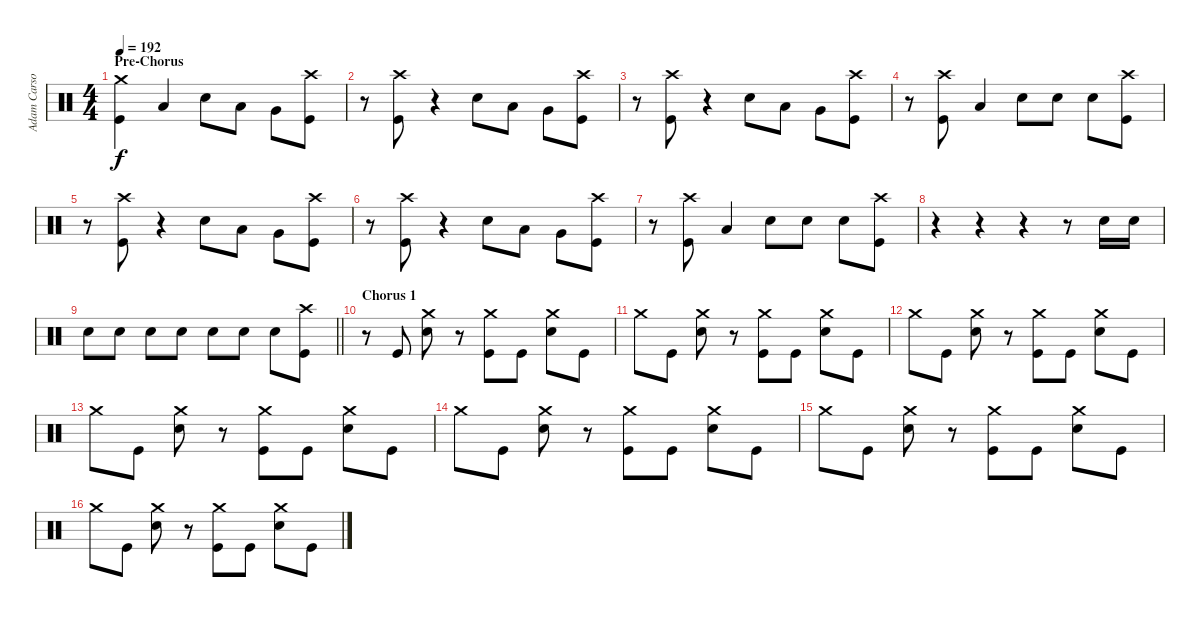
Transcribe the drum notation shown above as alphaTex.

\track ("Adam Carson" "Adam Carso") {instrument percussion}
\staff {score}
\articulation defaults
\ts (4 4)
\section ("" "Pre-Chorus")
\tempo 192
\clef neutral
\ks c
("Crash medium (hit)" "Kick (hit)").4{dy f} "Low Tom (hit)".4 "Electric Snare (hit)".8 "Low Tom (hit)".8 "Very Low Tom (hit)".8 ("Crash high (hit)" "Kick (hit)").8 |
r.8 ("Crash high (hit)" "Kick (hit)").8 r.4 "Electric Snare (hit)".8 "Low Tom (hit)".8 "Very Low Tom (hit)".8 ("Crash high (hit)" "Kick (hit)").8 |
r.8 ("Crash high (hit)" "Kick (hit)").8 r.4 "Electric Snare (hit)".8 "Low Tom (hit)".8 "Very Low Tom (hit)".8 ("Crash high (hit)" "Kick (hit)").8 |
r.8 ("Crash high (hit)" "Kick (hit)").8 "Low Tom (hit)".4 "Electric Snare (hit)".8 "Electric Snare (hit)".8 "Electric Snare (hit)".8 ("Crash high (hit)" "Kick (hit)").8 |
r.8 ("Crash high (hit)" "Kick (hit)").8 r.4 "Electric Snare (hit)".8 "Low Tom (hit)".8 "Very Low Tom (hit)".8 ("Crash high (hit)" "Kick (hit)").8 |
r.8 ("Crash high (hit)" "Kick (hit)").8 r.4 "Electric Snare (hit)".8 "Low Tom (hit)".8 "Very Low Tom (hit)".8 ("Crash high (hit)" "Kick (hit)").8 |
r.8 ("Crash high (hit)" "Kick (hit)").8 "Low Tom (hit)".4 "Electric Snare (hit)".8 "Electric Snare (hit)".8 "Electric Snare (hit)".8 ("Crash high (hit)" "Kick (hit)").8 |
r.4 r.4 r.4 r.8 "Electric Snare (hit)".16 "Electric Snare (hit)".16 |
\barLineRight lightlight "Electric Snare (hit)".8 "Electric Snare (hit)".8 "Electric Snare (hit)".8 "Electric Snare (hit)".8 "Electric Snare (hit)".8 "Electric Snare (hit)".8 "Electric Snare (hit)".8
("Crash high (hit)" "Kick (hit)").8 |
\section ("" "Chorus 1")
r.8 "Kick (hit)".8 ("Crash medium (hit)" "Electric Snare (hit)").8 r.8 ("Crash medium (hit)" "Kick (hit)").8 "Kick (hit)".8 ("Crash medium (hit)" "Electric Snare (hit)").8 "Kick (hit)".8 |
"Crash medium (hit)".8 "Kick (hit)".8 ("Crash medium (hit)" "Electric Snare (hit)").8 r.8 ("Crash medium (hit)" "Kick (hit)").8 "Kick (hit)".8 ("Crash medium (hit)" "Electric Snare (hit)").8 "Kick (hit)".8 |
"Crash medium (hit)".8 "Kick (hit)".8 ("Crash medium (hit)" "Electric Snare (hit)").8 r.8 ("Crash medium (hit)" "Kick (hit)").8 "Kick (hit)".8 ("Crash medium (hit)" "Electric Snare (hit)").8 "Kick (hit)".8 |
"Crash medium (hit)".8 "Kick (hit)".8 ("Crash medium (hit)" "Electric Snare (hit)").8 r.8 ("Crash medium (hit)" "Kick (hit)").8 "Kick (hit)".8 ("Crash medium (hit)" "Electric Snare (hit)").8 "Kick (hit)".8 |
"Crash medium (hit)".8 "Kick (hit)".8 ("Crash medium (hit)" "Electric Snare (hit)").8 r.8 ("Crash medium (hit)" "Kick (hit)").8 "Kick (hit)".8 ("Crash medium (hit)" "Electric Snare (hit)").8 "Kick (hit)".8 |
"Crash medium (hit)".8 "Kick (hit)".8 ("Crash medium (hit)" "Electric Snare (hit)").8 r.8 ("Crash medium (hit)" "Kick (hit)").8 "Kick (hit)".8 ("Crash medium (hit)" "Electric Snare (hit)").8 "Kick (hit)".8 |
"Crash medium (hit)".8 "Kick (hit)".8 ("Crash medium (hit)" "Electric Snare (hit)").8 r.8 ("Crash medium (hit)" "Kick (hit)").8 "Kick (hit)".8 ("Crash medium (hit)" "Electric Snare (hit)").8 "Kick (hit)".8
